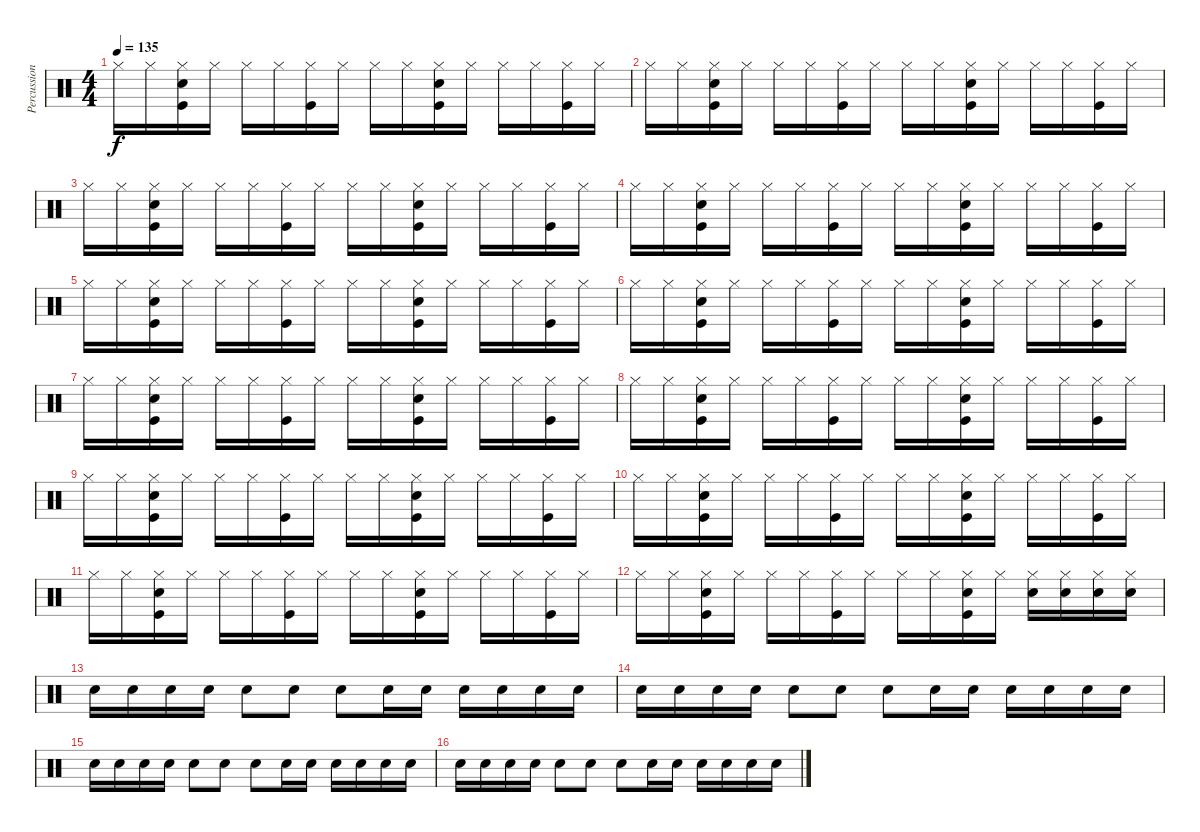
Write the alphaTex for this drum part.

\track ("Percussion" "Percussion") {instrument percussion}
\staff {score}
\articulation defaults
\ts (4 4)
\tempo 135
\clef neutral
\ks c "Hi-Hat (closed)".16{dy f} "Hi-Hat (closed)".16
("Hi-Hat (closed)" "Snare (hit) 2" "Kick (hit)").16 "Hi-Hat (closed)".16 "Hi-Hat (closed)".16 "Hi-Hat (closed)".16 ("Hi-Hat (closed)" "Kick (hit)").16 "Hi-Hat (closed)".16 "Hi-Hat (closed)".16 "Hi-Hat (closed)".16 ("Hi-Hat (closed)" "Snare (hit) 2" "Kick (hit)").16 "Hi-Hat (closed)".16 "Hi-Hat (closed)".16 "Hi-Hat (closed)".16 ("Hi-Hat (closed)" "Kick (hit)").16 "Hi-Hat (closed)".16 |
"Hi-Hat (closed)".16 "Hi-Hat (closed)".16 ("Hi-Hat (closed)" "Snare (hit) 2" "Kick (hit)").16 "Hi-Hat (closed)".16 "Hi-Hat (closed)".16 "Hi-Hat (closed)".16 ("Hi-Hat (closed)" "Kick (hit)").16 "Hi-Hat (closed)".16 "Hi-Hat (closed)".16 "Hi-Hat (closed)".16 ("Hi-Hat (closed)" "Snare (hit) 2" "Kick (hit)").16 "Hi-Hat (closed)".16 "Hi-Hat (closed)".16 "Hi-Hat (closed)".16 ("Hi-Hat (closed)" "Kick (hit)").16 "Hi-Hat (closed)".16 |
"Hi-Hat (closed)".16 "Hi-Hat (closed)".16 ("Hi-Hat (closed)" "Snare (hit) 2" "Kick (hit)").16 "Hi-Hat (closed)".16 "Hi-Hat (closed)".16 "Hi-Hat (closed)".16 ("Hi-Hat (closed)" "Kick (hit)").16 "Hi-Hat (closed)".16 "Hi-Hat (closed)".16 "Hi-Hat (closed)".16 ("Hi-Hat (closed)" "Snare (hit) 2" "Kick (hit)").16 "Hi-Hat (closed)".16 "Hi-Hat (closed)".16 "Hi-Hat (closed)".16 ("Hi-Hat (closed)" "Kick (hit)").16 "Hi-Hat (closed)".16 |
"Hi-Hat (closed)".16 "Hi-Hat (closed)".16 ("Hi-Hat (closed)" "Snare (hit) 2" "Kick (hit)").16 "Hi-Hat (closed)".16 "Hi-Hat (closed)".16 "Hi-Hat (closed)".16 ("Hi-Hat (closed)" "Kick (hit)").16 "Hi-Hat (closed)".16 "Hi-Hat (closed)".16 "Hi-Hat (closed)".16 ("Hi-Hat (closed)" "Snare (hit) 2" "Kick (hit)").16 "Hi-Hat (closed)".16 "Hi-Hat (closed)".16 "Hi-Hat (closed)".16 ("Hi-Hat (closed)" "Kick (hit)").16 "Hi-Hat (closed)".16 |
"Hi-Hat (closed)".16 "Hi-Hat (closed)".16 ("Hi-Hat (closed)" "Snare (hit) 2" "Kick (hit)").16 "Hi-Hat (closed)".16 "Hi-Hat (closed)".16 "Hi-Hat (closed)".16 ("Hi-Hat (closed)" "Kick (hit)").16 "Hi-Hat (closed)".16 "Hi-Hat (closed)".16 "Hi-Hat (closed)".16 ("Hi-Hat (closed)" "Snare (hit) 2" "Kick (hit)").16 "Hi-Hat (closed)".16 "Hi-Hat (closed)".16 "Hi-Hat (closed)".16 ("Hi-Hat (closed)" "Kick (hit)").16 "Hi-Hat (closed)".16 |
"Hi-Hat (closed)".16 "Hi-Hat (closed)".16 ("Hi-Hat (closed)" "Snare (hit) 2" "Kick (hit)").16 "Hi-Hat (closed)".16 "Hi-Hat (closed)".16 "Hi-Hat (closed)".16 ("Hi-Hat (closed)" "Kick (hit)").16 "Hi-Hat (closed)".16 "Hi-Hat (closed)".16 "Hi-Hat (closed)".16 ("Hi-Hat (closed)" "Snare (hit) 2" "Kick (hit)").16 "Hi-Hat (closed)".16 "Hi-Hat (closed)".16 "Hi-Hat (closed)".16 ("Hi-Hat (closed)" "Kick (hit)").16 "Hi-Hat (closed)".16 |
"Hi-Hat (closed)".16 "Hi-Hat (closed)".16 ("Hi-Hat (closed)" "Snare (hit) 2" "Kick (hit)").16 "Hi-Hat (closed)".16 "Hi-Hat (closed)".16 "Hi-Hat (closed)".16 ("Hi-Hat (closed)" "Kick (hit)").16 "Hi-Hat (closed)".16 "Hi-Hat (closed)".16 "Hi-Hat (closed)".16 ("Hi-Hat (closed)" "Snare (hit) 2" "Kick (hit)").16 "Hi-Hat (closed)".16 "Hi-Hat (closed)".16 "Hi-Hat (closed)".16 ("Hi-Hat (closed)" "Kick (hit)").16 "Hi-Hat (closed)".16 |
"Hi-Hat (closed)".16 "Hi-Hat (closed)".16 ("Hi-Hat (closed)" "Snare (hit) 2" "Kick (hit)").16 "Hi-Hat (closed)".16 "Hi-Hat (closed)".16 "Hi-Hat (closed)".16 ("Hi-Hat (closed)" "Kick (hit)").16 "Hi-Hat (closed)".16 "Hi-Hat (closed)".16 "Hi-Hat (closed)".16 ("Hi-Hat (closed)" "Snare (hit) 2" "Kick (hit)").16 "Hi-Hat (closed)".16 "Hi-Hat (closed)".16 "Hi-Hat (closed)".16 ("Hi-Hat (closed)" "Kick (hit)").16 "Hi-Hat (closed)".16 |
"Hi-Hat (closed)".16 "Hi-Hat (closed)".16 ("Hi-Hat (closed)" "Snare (hit) 2" "Kick (hit)").16 "Hi-Hat (closed)".16 "Hi-Hat (closed)".16 "Hi-Hat (closed)".16 ("Hi-Hat (closed)" "Kick (hit)").16 "Hi-Hat (closed)".16 "Hi-Hat (closed)".16 "Hi-Hat (closed)".16 ("Hi-Hat (closed)" "Snare (hit) 2" "Kick (hit)").16 "Hi-Hat (closed)".16 "Hi-Hat (closed)".16 "Hi-Hat (closed)".16 ("Hi-Hat (closed)" "Kick (hit)").16 "Hi-Hat (closed)".16 |
"Hi-Hat (closed)".16 "Hi-Hat (closed)".16 ("Hi-Hat (closed)" "Snare (hit) 2" "Kick (hit)").16 "Hi-Hat (closed)".16 "Hi-Hat (closed)".16 "Hi-Hat (closed)".16 ("Hi-Hat (closed)" "Kick (hit)").16 "Hi-Hat (closed)".16 "Hi-Hat (closed)".16 "Hi-Hat (closed)".16 ("Hi-Hat (closed)" "Snare (hit) 2" "Kick (hit)").16 "Hi-Hat (closed)".16 "Hi-Hat (closed)".16 "Hi-Hat (closed)".16 ("Hi-Hat (closed)" "Kick (hit)").16 "Hi-Hat (closed)".16 |
"Hi-Hat (closed)".16 "Hi-Hat (closed)".16 ("Hi-Hat (closed)" "Snare (hit) 2" "Kick (hit)").16 "Hi-Hat (closed)".16 "Hi-Hat (closed)".16 "Hi-Hat (closed)".16 ("Hi-Hat (closed)" "Kick (hit)").16 "Hi-Hat (closed)".16 "Hi-Hat (closed)".16 "Hi-Hat (closed)".16 ("Hi-Hat (closed)" "Snare (hit) 2" "Kick (hit)").16 "Hi-Hat (closed)".16 "Hi-Hat (closed)".16 "Hi-Hat (closed)".16 ("Hi-Hat (closed)" "Kick (hit)").16 "Hi-Hat (closed)".16 |
"Hi-Hat (closed)".16 "Hi-Hat (closed)".16 ("Hi-Hat (closed)" "Snare (hit) 2" "Kick (hit)").16 "Hi-Hat (closed)".16 "Hi-Hat (closed)".16 "Hi-Hat (closed)".16 ("Hi-Hat (closed)" "Kick (hit)").16 "Hi-Hat (closed)".16 "Hi-Hat (closed)".16 "Hi-Hat (closed)".16 ("Hi-Hat (closed)" "Snare (hit) 2" "Kick (hit)").16 "Hi-Hat (closed)".16 ("Hi-Hat (closed)" "Snare (hit) 2").16 ("Hi-Hat (closed)" "Snare (hit) 2").16 ("Hi-Hat (closed)" "Snare (hit) 2").16 ("Hi-Hat (closed)" "Snare (hit) 2").16 |
"Snare (hit) 2".16 "Snare (hit) 2".16 "Snare (hit) 2".16 "Snare (hit) 2".16 "Snare (hit) 2".8 "Snare (hit) 2".8 "Snare (hit) 2".8 "Snare (hit) 2".16 "Snare (hit) 2".16 "Snare (hit) 2".16 "Snare (hit) 2".16 "Snare (hit) 2".16 "Snare (hit) 2".16 |
"Snare (hit) 2".16 "Snare (hit) 2".16 "Snare (hit) 2".16 "Snare (hit) 2".16 "Snare (hit) 2".8 "Snare (hit) 2".8 "Snare (hit) 2".8 "Snare (hit) 2".16 "Snare (hit) 2".16 "Snare (hit) 2".16 "Snare (hit) 2".16 "Snare (hit) 2".16 "Snare (hit) 2".16 |
"Snare (hit) 2".16 "Snare (hit) 2".16 "Snare (hit) 2".16 "Snare (hit) 2".16 "Snare (hit) 2".8 "Snare (hit) 2".8 "Snare (hit) 2".8 "Snare (hit) 2".16 "Snare (hit) 2".16 "Snare (hit) 2".16 "Snare (hit) 2".16 "Snare (hit) 2".16 "Snare (hit) 2".16 |
"Snare (hit) 2".16 "Snare (hit) 2".16 "Snare (hit) 2".16 "Snare (hit) 2".16 "Snare (hit) 2".8 "Snare (hit) 2".8 "Snare (hit) 2".8 "Snare (hit) 2".16 "Snare (hit) 2".16 "Snare (hit) 2".16 "Snare (hit) 2".16 "Snare (hit) 2".16 "Snare (hit) 2".16
